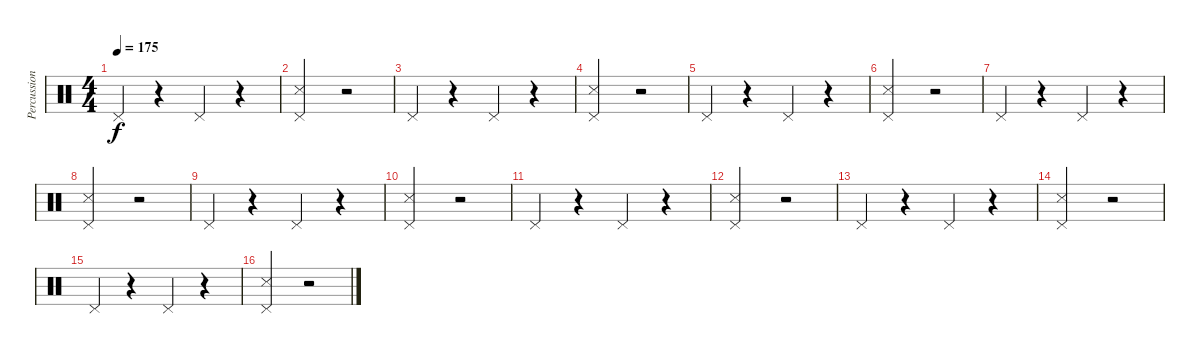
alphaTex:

\track ("Percussions" "Percussion") {instrument percussion}
\staff {score}
\articulation defaults
\ts (4 4)
\tempo 175
\clef neutral
\ks c "Pedal Hi-Hat (hit)".4{dy f}
r.4 "Pedal Hi-Hat (hit)".4 r.4 |
("Pedal Hi-Hat (hit)" "Snare (side stick) 3").2 r.2 |
"Pedal Hi-Hat (hit)".4 r.4 "Pedal Hi-Hat (hit)".4 r.4 |
("Pedal Hi-Hat (hit)" "Snare (side stick) 3").2 r.2 |
"Pedal Hi-Hat (hit)".4 r.4 "Pedal Hi-Hat (hit)".4 r.4 |
("Pedal Hi-Hat (hit)" "Snare (side stick) 3").2 r.2 |
"Pedal Hi-Hat (hit)".4 r.4 "Pedal Hi-Hat (hit)".4 r.4 |
("Pedal Hi-Hat (hit)" "Snare (side stick) 3").2 r.2 |
"Pedal Hi-Hat (hit)".4 r.4 "Pedal Hi-Hat (hit)".4 r.4 |
("Pedal Hi-Hat (hit)" "Snare (side stick) 3").2 r.2 |
"Pedal Hi-Hat (hit)".4 r.4 "Pedal Hi-Hat (hit)".4 r.4 |
("Pedal Hi-Hat (hit)" "Snare (side stick) 3").2 r.2 |
"Pedal Hi-Hat (hit)".4 r.4 "Pedal Hi-Hat (hit)".4 r.4 |
("Pedal Hi-Hat (hit)" "Snare (side stick) 3").2 r.2 |
"Pedal Hi-Hat (hit)".4 r.4 "Pedal Hi-Hat (hit)".4 r.4 |
("Pedal Hi-Hat (hit)" "Snare (side stick) 3").2 r.2
